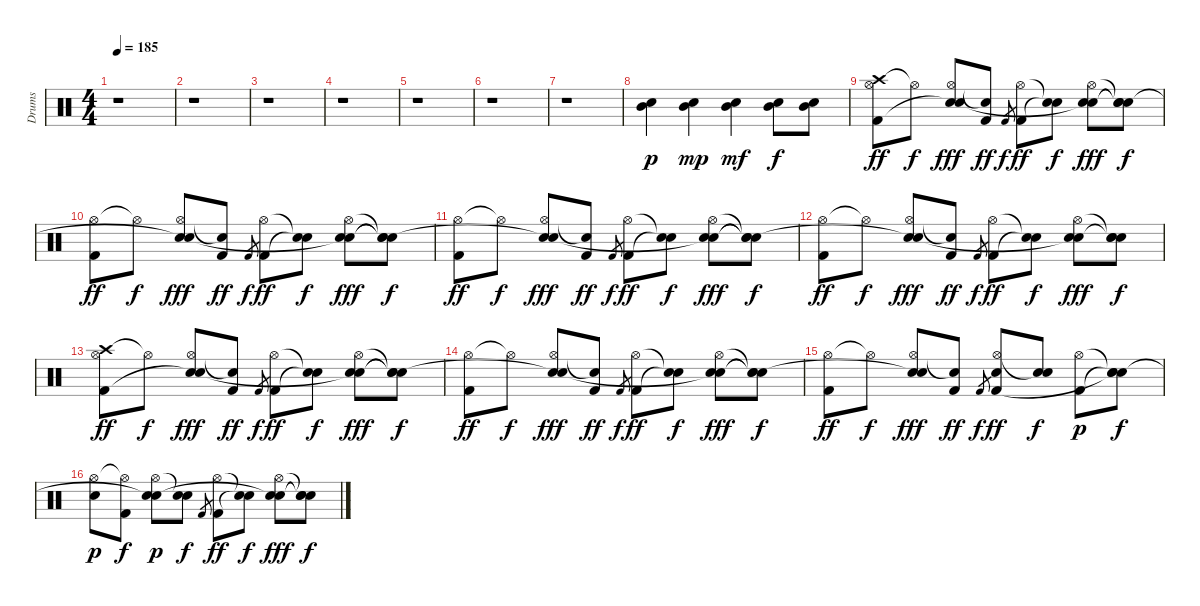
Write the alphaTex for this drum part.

\track ("Drums" "Drums") {instrument percussion}
\staff {score}
\articulation defaults
\ts (4 4)
\tempo 185
\clef neutral
\ks c
r.1{dy f} |
r.1 |
r.1 |
r.1 |
r.1 |
r.1 |
r.1 |
("Electric Snare (hit)" "Mid Tom (hit)").4{dy p} ("Electric Snare (hit)" "Mid Tom (hit)").4{dy mp} ("Electric Snare (hit)" "Mid Tom (hit)").4{dy mf} ("Electric Snare (hit)" "Mid Tom (hit)").8{dy f} ("Electric Snare (hit)" "Mid Tom (hit)").8 |
("Crash high (hit)" "Hi-Hat (open)" "Kick (hit) 2").8{dy ff} "Hi-Hat (open)"{t}.8{dy f} ("Hi-Hat (open)" "Electric Snare (hit)" "Snare (hit)"{t}).8{dy fff} ("Snare (hit)"{t} "Kick (hit) 2").8{dy ff} "Kick (hit) 2".8{gr dy f} ("Hi-Hat (open)" "Kick (hit) 2").8{dy ff} ("Snare (hit)"{t} "Snare (hit)"{t}).8{dy f} ("Hi-Hat (open)" "Electric Snare (hit)" "Snare (hit)"{t}).8{dy fff} ("Snare (hit)"{t} "Snare (hit)"{t} "Snare (hit)"{t}).8{dy f} |
("Hi-Hat (open)" "Kick (hit) 2").8{dy ff} "Hi-Hat (open)"{t}.8{dy f} ("Hi-Hat (open)" "Electric Snare (hit)" "Snare (hit)"{t}).8{dy fff} ("Snare (hit)"{t} "Kick (hit) 2").8{dy ff} "Kick (hit) 2".8{gr dy f} ("Hi-Hat (open)" "Kick (hit) 2").8{dy ff} ("Snare (hit)"{t} "Snare (hit)"{t}).8{dy f} ("Hi-Hat (open)" "Electric Snare (hit)" "Snare (hit)"{t}).8{dy fff} ("Snare (hit)"{t} "Snare (hit)"{t} "Snare (hit)"{t}).8{dy f} |
("Hi-Hat (open)" "Kick (hit) 2").8{dy ff} "Hi-Hat (open)"{t}.8{dy f} ("Hi-Hat (open)" "Electric Snare (hit)" "Snare (hit)"{t}).8{dy fff} ("Snare (hit)"{t} "Kick (hit) 2").8{dy ff} "Kick (hit) 2".8{gr dy f} ("Hi-Hat (open)" "Kick (hit) 2").8{dy ff} ("Snare (hit)"{t} "Snare (hit)"{t}).8{dy f} ("Hi-Hat (open)" "Electric Snare (hit)" "Snare (hit)"{t}).8{dy fff} ("Snare (hit)"{t} "Snare (hit)"{t} "Snare (hit)"{t}).8{dy f} |
("Hi-Hat (open)" "Kick (hit) 2").8{dy ff} "Hi-Hat (open)"{t}.8{dy f} ("Hi-Hat (open)" "Electric Snare (hit)" "Snare (hit)"{t}).8{dy fff} ("Snare (hit)"{t} "Kick (hit) 2").8{dy ff} "Kick (hit) 2".8{gr dy f} ("Hi-Hat (open)" "Kick (hit) 2").8{dy ff} ("Snare (hit)"{t} "Snare (hit)"{t}).8{dy f} ("Hi-Hat (open)" "Electric Snare (hit)" "Snare (hit)"{t}).8{dy fff} ("Snare (hit)"{t} "Electric Snare (hit)" "Snare (hit)"{t}).8{dy f} |
("Crash high (hit)" "Hi-Hat (open)" "Kick (hit) 2").8{dy ff} "Hi-Hat (open)"{t}.8{dy f} ("Hi-Hat (open)" "Electric Snare (hit)" "Snare (hit)"{t}).8{dy fff} ("Snare (hit)"{t} "Kick (hit) 2").8{dy ff} "Kick (hit) 2".8{gr dy f} ("Hi-Hat (open)" "Kick (hit) 2").8{dy ff} ("Snare (hit)"{t} "Snare (hit)"{t}).8{dy f} ("Hi-Hat (open)" "Electric Snare (hit)" "Snare (hit)"{t}).8{dy fff} ("Snare (hit)"{t} "Snare (hit)"{t} "Snare (hit)"{t}).8{dy f} |
("Hi-Hat (open)" "Kick (hit) 2").8{dy ff} "Hi-Hat (open)"{t}.8{dy f} ("Hi-Hat (open)" "Electric Snare (hit)" "Snare (hit)"{t}).8{dy fff} ("Snare (hit)"{t} "Kick (hit) 2").8{dy ff} "Kick (hit) 2".8{gr dy f} ("Hi-Hat (open)" "Kick (hit) 2").8{dy ff} ("Snare (hit)"{t} "Snare (hit)"{t}).8{dy f} ("Hi-Hat (open)" "Electric Snare (hit)" "Snare (hit)"{t}).8{dy fff} ("Snare (hit)"{t} "Snare (hit)"{t} "Snare (hit)"{t}).8{dy f} |
("Hi-Hat (open)" "Kick (hit) 2").8{dy ff} "Hi-Hat (open)"{t}.8{dy f} ("Hi-Hat (open)" "Electric Snare (hit)" "Snare (hit)"{t}).8{dy fff} ("Snare (hit)"{t} "Kick (hit) 2").8{dy ff} "Kick (hit) 2".8{gr dy f} ("Hi-Hat (open)" "Electric Snare (hit)" "Kick (hit) 2").8{dy ff} ("Snare (hit)"{t} "Electric Snare (hit)").8{dy f} ("Hi-Hat (open)" "Kick (hit) 2").8{dy p} ("Snare (hit)"{t} "Snare (hit)"{t} "Snare (hit)"{t}).8{dy f} |
("Hi-Hat (open)" "Electric Snare (hit)").8{dy p} ("Hi-Hat (open)"{t} "Kick (hit) 2").8{dy f} ("Hi-Hat (open)" "Electric Snare (hit)" "Snare (hit)"{t}).8{dy p} ("Snare (hit)"{t} "Electric Snare (hit)").8{dy f} "Kick (hit) 2".8{gr} ("Hi-Hat (open)" "Kick (hit) 2").8{dy ff} ("Snare (hit)"{t} "Snare (hit)"{t}).8{dy f} ("Hi-Hat (open)" "Electric Snare (hit)" "Snare (hit)"{t}).8{dy fff} ("Snare (hit)"{t} "Snare (hit)"{t} "Snare (hit)"{t}).8{dy f}
